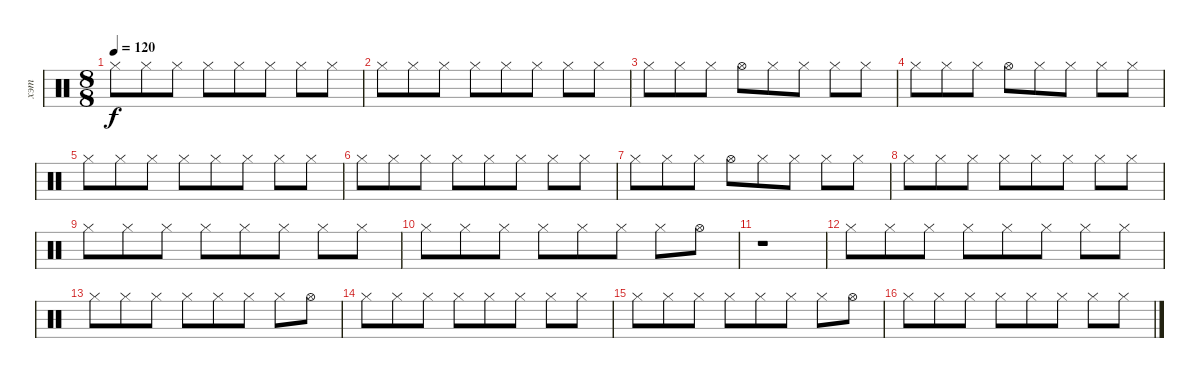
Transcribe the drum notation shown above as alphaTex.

\track ("хэт" "хэт") {instrument percussion}
\staff {score}
\articulation defaults
\ts (8 8)
\tempo 120
\clef neutral
\ks c "Hi-Hat (closed)".8{dy f} "Hi-Hat (closed)".8 "Hi-Hat (closed)".8 "Hi-Hat (closed)".8 "Hi-Hat (closed)".8 "Hi-Hat (closed)".8 "Hi-Hat (closed)".8 "Hi-Hat (closed)".8
|
"Hi-Hat (closed)".8 "Hi-Hat (closed)".8 "Hi-Hat (closed)".8 "Hi-Hat (closed)".8 "Hi-Hat (closed)".8 "Hi-Hat (closed)".8 "Hi-Hat (closed)".8 "Hi-Hat (closed)".8 |
"Hi-Hat (closed)".8 "Hi-Hat (closed)".8 "Hi-Hat (closed)".8 "Hi-Hat (open)".8 "Hi-Hat (closed)".8 "Hi-Hat (closed)".8 "Hi-Hat (closed)".8 "Hi-Hat (closed)".8 |
"Hi-Hat (closed)".8 "Hi-Hat (closed)".8 "Hi-Hat (closed)".8 "Hi-Hat (open)".8 "Hi-Hat (closed)".8 "Hi-Hat (closed)".8 "Hi-Hat (closed)".8 "Hi-Hat (closed)".8 |
"Hi-Hat (closed)".8 "Hi-Hat (closed)".8 "Hi-Hat (closed)".8 "Hi-Hat (closed)".8 "Hi-Hat (closed)".8 "Hi-Hat (closed)".8 "Hi-Hat (closed)".8 "Hi-Hat (closed)".8 |
"Hi-Hat (closed)".8 "Hi-Hat (closed)".8 "Hi-Hat (closed)".8 "Hi-Hat (closed)".8 "Hi-Hat (closed)".8 "Hi-Hat (closed)".8 "Hi-Hat (closed)".8 "Hi-Hat (closed)".8 |
"Hi-Hat (closed)".8 "Hi-Hat (closed)".8 "Hi-Hat (closed)".8 "Hi-Hat (open)".8 "Hi-Hat (closed)".8 "Hi-Hat (closed)".8 "Hi-Hat (closed)".8 "Hi-Hat (closed)".8 |
"Hi-Hat (closed)".8 "Hi-Hat (closed)".8 "Hi-Hat (closed)".8 "Hi-Hat (closed)".8 "Hi-Hat (closed)".8 "Hi-Hat (closed)".8 "Hi-Hat (closed)".8 "Hi-Hat (closed)".8 |
"Hi-Hat (closed)".8 "Hi-Hat (closed)".8 "Hi-Hat (closed)".8 "Hi-Hat (closed)".8 "Hi-Hat (closed)".8 "Hi-Hat (closed)".8 "Hi-Hat (closed)".8 "Hi-Hat (closed)".8 |
"Hi-Hat (closed)".8 "Hi-Hat (closed)".8 "Hi-Hat (closed)".8 "Hi-Hat (closed)".8 "Hi-Hat (closed)".8 "Hi-Hat (closed)".8 "Hi-Hat (closed)".8 "Hi-Hat (open)".8 |
r.1 |
"Hi-Hat (closed)".8 "Hi-Hat (closed)".8 "Hi-Hat (closed)".8 "Hi-Hat (closed)".8 "Hi-Hat (closed)".8 "Hi-Hat (closed)".8 "Hi-Hat (closed)".8 "Hi-Hat (closed)".8 |
"Hi-Hat (closed)".8 "Hi-Hat (closed)".8 "Hi-Hat (closed)".8 "Hi-Hat (closed)".8 "Hi-Hat (closed)".8 "Hi-Hat (closed)".8 "Hi-Hat (closed)".8 "Hi-Hat (open)".8 |
"Hi-Hat (closed)".8 "Hi-Hat (closed)".8 "Hi-Hat (closed)".8 "Hi-Hat (closed)".8 "Hi-Hat (closed)".8 "Hi-Hat (closed)".8 "Hi-Hat (closed)".8 "Hi-Hat (closed)".8 |
"Hi-Hat (closed)".8 "Hi-Hat (closed)".8 "Hi-Hat (closed)".8 "Hi-Hat (closed)".8 "Hi-Hat (closed)".8 "Hi-Hat (closed)".8 "Hi-Hat (closed)".8 "Hi-Hat (open)".8 |
"Hi-Hat (closed)".8 "Hi-Hat (closed)".8 "Hi-Hat (closed)".8 "Hi-Hat (closed)".8 "Hi-Hat (closed)".8 "Hi-Hat (closed)".8 "Hi-Hat (closed)".8 "Hi-Hat (closed)".8
